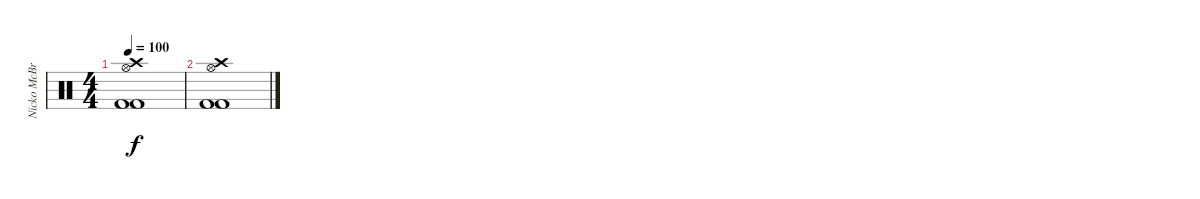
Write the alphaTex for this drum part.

\track ("Nicko McBrain" "Nicko McBr") {instrument percussion}
\staff {score}
\articulation defaults
\ts (4 4)
\tempo 100
\clef neutral
\ks c
("Crash high (hit)" "Hi-Hat (open)" "Kick (hit) 2" "Kick (hit) 2").1{dy f} |
("Crash high (hit)" "Hi-Hat (open)" "Kick (hit) 2" "Kick (hit) 2").1
